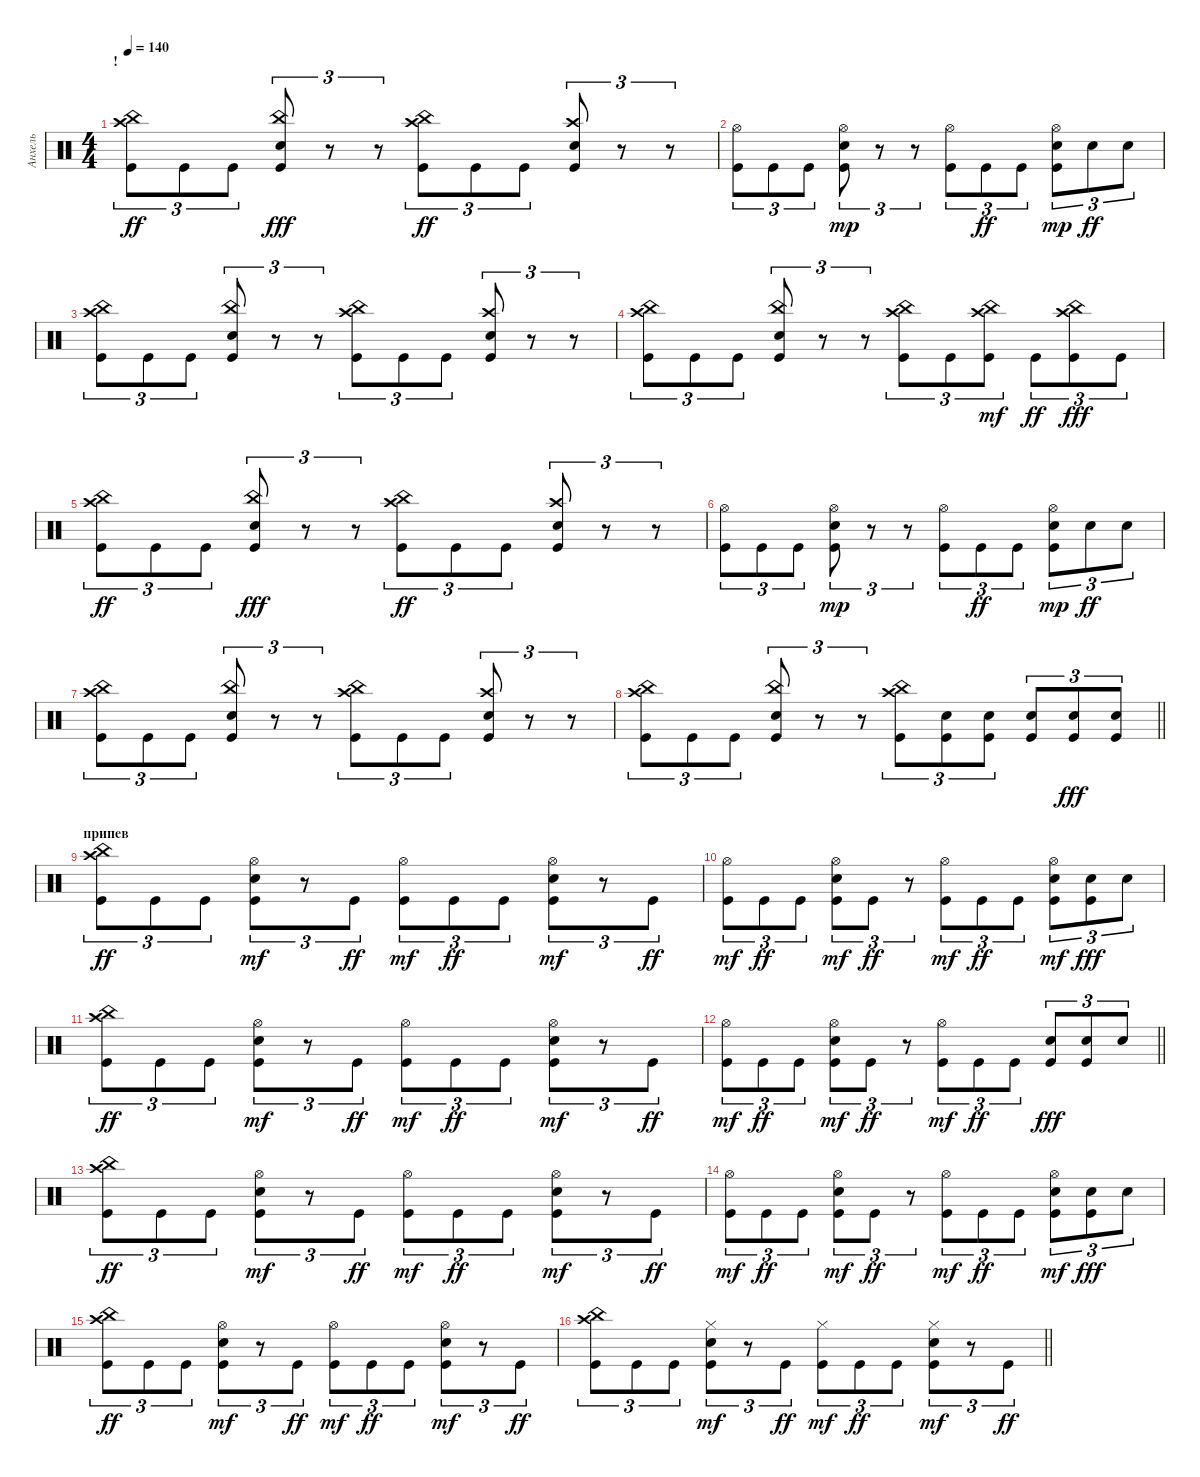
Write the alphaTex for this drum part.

\track ("Анхель" "Анхель") {instrument percussion}
\staff {score}
\articulation defaults
\ts (4 4)
\section ("" "!")
\tempo 140
\clef neutral
\ks c
("Kick (hit)" "China (hit)" "Crash high (hit)").8{tu (3 2) dy ff} "Kick (hit)".8{tu (3 2)} "Kick (hit)".8{tu (3 2)} ("Kick (hit)" "Snare (hit) 2" "China (hit)").8{tu (3 2) dy fff} r.8{tu (3 2)} r.8{tu (3 2)} ("Kick (hit)" "China (hit)" "Crash high (hit)").8{tu (3 2) dy ff} "Kick (hit)".8{tu (3 2)} "Kick (hit)".8{tu (3 2)} ("Kick (hit)" "Snare (hit) 2" "Crash high (hit)").8{tu (3 2)} r.8{tu (3 2)} r.8{tu (3 2)} |
("Kick (hit)" "Hi-Hat (open)").8{tu (3 2)} "Kick (hit)".8{tu (3 2)} "Kick (hit)".8{tu (3 2)} ("Kick (hit)" "Snare (hit) 2" "Hi-Hat (open)").8{tu (3 2) dy mp} r.8{tu (3 2)} r.8{tu (3 2)} ("Kick (hit)" "Hi-Hat (open)").8{tu (3 2)} "Kick (hit)".8{tu (3 2) dy ff} "Kick (hit)".8{tu (3 2)} ("Kick (hit)" "Snare (hit) 2" "Hi-Hat (open)").8{tu (3 2) dy mp} "Snare (hit) 2".8{tu (3 2) dy ff} "Snare (hit) 2".8{tu (3 2)} |
("Kick (hit)" "China (hit)" "Crash high (hit)").8{tu (3 2)} "Kick (hit)".8{tu (3 2)} "Kick (hit)".8{tu (3 2)} ("Kick (hit)" "Snare (hit) 2" "China (hit)").8{tu (3 2)} r.8{tu (3 2)} r.8{tu (3 2)} ("Kick (hit)" "China (hit)" "Crash high (hit)").8{tu (3 2)} "Kick (hit)".8{tu (3 2)} "Kick (hit)".8{tu (3 2)} ("Kick (hit)" "Snare (hit) 2" "Crash high (hit)").8{tu (3 2)} r.8{tu (3 2)} r.8{tu (3 2)} |
("Kick (hit)" "China (hit)" "Crash high (hit)").8{tu (3 2)} "Kick (hit)".8{tu (3 2)} "Kick (hit)".8{tu (3 2)} ("Kick (hit)" "Snare (hit) 2" "China (hit)").8{tu (3 2)} r.8{tu (3 2)} r.8{tu (3 2)} ("Kick (hit)" "China (hit)" "Crash high (hit)").8{tu (3 2)} "Kick (hit)".8{tu (3 2)} ("Kick (hit)" "Crash high (hit)" "China (hit)").8{tu (3 2) dy mf} "Kick (hit)".8{tu (3 2) dy ff} ("Kick (hit)" "China (hit)" "Crash high (hit)").8{tu (3 2) dy fff} "Kick (hit)".8{tu (3 2)} |
("Kick (hit)" "China (hit)" "Crash high (hit)").8{tu (3 2) dy ff} "Kick (hit)".8{tu (3 2)} "Kick (hit)".8{tu (3 2)} ("Kick (hit)" "Snare (hit) 2" "China (hit)").8{tu (3 2) dy fff} r.8{tu (3 2)} r.8{tu (3 2)} ("Kick (hit)" "China (hit)" "Crash high (hit)").8{tu (3 2) dy ff} "Kick (hit)".8{tu (3 2)} "Kick (hit)".8{tu (3 2)} ("Kick (hit)" "Snare (hit) 2" "Crash high (hit)").8{tu (3 2)} r.8{tu (3 2)} r.8{tu (3 2)} |
("Kick (hit)" "Hi-Hat (open)").8{tu (3 2)} "Kick (hit)".8{tu (3 2)} "Kick (hit)".8{tu (3 2)} ("Kick (hit)" "Snare (hit) 2" "Hi-Hat (open)").8{tu (3 2) dy mp} r.8{tu (3 2)} r.8{tu (3 2)} ("Kick (hit)" "Hi-Hat (open)").8{tu (3 2)} "Kick (hit)".8{tu (3 2) dy ff} "Kick (hit)".8{tu (3 2)} ("Kick (hit)" "Snare (hit) 2" "Hi-Hat (open)").8{tu (3 2) dy mp} "Snare (hit) 2".8{tu (3 2) dy ff} "Snare (hit) 2".8{tu (3 2)} |
("Kick (hit)" "China (hit)" "Crash high (hit)").8{tu (3 2)} "Kick (hit)".8{tu (3 2)} "Kick (hit)".8{tu (3 2)} ("Kick (hit)" "Snare (hit) 2" "China (hit)").8{tu (3 2)} r.8{tu (3 2)} r.8{tu (3 2)} ("Kick (hit)" "China (hit)" "Crash high (hit)").8{tu (3 2)} "Kick (hit)".8{tu (3 2)} "Kick (hit)".8{tu (3 2)} ("Kick (hit)" "Snare (hit) 2" "Crash high (hit)").8{tu (3 2)} r.8{tu (3 2)} r.8{tu (3 2)} |
\barLineRight lightlight
("Kick (hit)" "China (hit)" "Crash high (hit)").8{tu (3 2)} "Kick (hit)".8{tu (3 2)} "Kick (hit)".8{tu (3 2)} ("Kick (hit)" "Snare (hit) 2" "China (hit)").8{tu (3 2)} r.8{tu (3 2)} r.8{tu (3 2)} ("Kick (hit)" "China (hit)" "Crash high (hit)").8{tu (3 2)} ("Kick (hit)" "Snare (hit) 2").8{tu (3 2)} ("Kick (hit)" "Snare (hit) 2").8{tu (3 2)} ("Kick (hit)" "Snare (hit) 2").8{tu (3 2)} ("Kick (hit)" "Snare (hit) 2").8{tu (3 2) dy fff} ("Kick (hit)" "Snare (hit) 2").8{tu (3 2)} |
\section ("" "припев")
("Kick (hit)" "China (hit)" "Crash high (hit)").8{tu (3 2) dy ff} "Kick (hit)".8{tu (3 2)} "Kick (hit)".8{tu (3 2)} ("Kick (hit)" "Snare (hit) 2" "Hi-Hat (open)").8{tu (3 2) dy mf} r.8{tu (3 2)} "Kick (hit)".8{tu (3 2) dy ff} ("Kick (hit)" "Hi-Hat (open)").8{tu (3 2) dy mf} "Kick (hit)".8{tu (3 2) dy ff} "Kick (hit)".8{tu (3 2)} ("Kick (hit)" "Snare (hit) 2" "Hi-Hat (open)").8{tu (3 2) dy mf} r.8{tu (3 2)} "Kick (hit)".8{tu (3 2) dy ff} |
("Kick (hit)" "Hi-Hat (open)").8{tu (3 2) dy mf} "Kick (hit)".8{tu (3 2) dy ff} "Kick (hit)".8{tu (3 2)} ("Kick (hit)" "Snare (hit) 2" "Hi-Hat (open)").8{tu (3 2) dy mf} "Kick (hit)".8{tu (3 2) dy ff} r.8{tu (3 2)} ("Kick (hit)" "Hi-Hat (open)").8{tu (3 2) dy mf} "Kick (hit)".8{tu (3 2) dy ff} "Kick (hit)".8{tu (3 2)} ("Kick (hit)" "Snare (hit) 2" "Hi-Hat (open)").8{tu (3 2) dy mf} ("Kick (hit)" "Snare (hit) 2").8{tu (3 2) dy fff} "Snare (hit) 2".8{tu (3 2)} |
("Kick (hit)" "China (hit)" "Crash high (hit)").8{tu (3 2) dy ff} "Kick (hit)".8{tu (3 2)} "Kick (hit)".8{tu (3 2)} ("Kick (hit)" "Snare (hit) 2" "Hi-Hat (open)").8{tu (3 2) dy mf} r.8{tu (3 2)} "Kick (hit)".8{tu (3 2) dy ff} ("Kick (hit)" "Hi-Hat (open)").8{tu (3 2) dy mf} "Kick (hit)".8{tu (3 2) dy ff} "Kick (hit)".8{tu (3 2)} ("Kick (hit)" "Snare (hit) 2" "Hi-Hat (open)").8{tu (3 2) dy mf} r.8{tu (3 2)} "Kick (hit)".8{tu (3 2) dy ff} |
\barLineRight lightlight
("Kick (hit)" "Hi-Hat (open)").8{tu (3 2) dy mf} "Kick (hit)".8{tu (3 2) dy ff} "Kick (hit)".8{tu (3 2)} ("Kick (hit)" "Snare (hit) 2" "Hi-Hat (open)").8{tu (3 2) dy mf} "Kick (hit)".8{tu (3 2) dy ff} r.8{tu (3 2)} ("Kick (hit)" "Hi-Hat (open)").8{tu (3 2) dy mf} "Kick (hit)".8{tu (3 2) dy ff} "Kick (hit)".8{tu (3 2)} ("Kick (hit)" "Snare (hit) 2").8{tu (3 2) dy fff} ("Kick (hit)" "Snare (hit) 2").8{tu (3 2)} "Snare (hit) 2".8{tu (3 2)} |
("Kick (hit)" "China (hit)" "Crash high (hit)").8{tu (3 2) dy ff} "Kick (hit)".8{tu (3 2)} "Kick (hit)".8{tu (3 2)} ("Kick (hit)" "Snare (hit) 2" "Hi-Hat (open)").8{tu (3 2) dy mf} r.8{tu (3 2)} "Kick (hit)".8{tu (3 2) dy ff} ("Kick (hit)" "Hi-Hat (open)").8{tu (3 2) dy mf} "Kick (hit)".8{tu (3 2) dy ff} "Kick (hit)".8{tu (3 2)} ("Kick (hit)" "Snare (hit) 2" "Hi-Hat (open)").8{tu (3 2) dy mf} r.8{tu (3 2)} "Kick (hit)".8{tu (3 2) dy ff} |
("Kick (hit)" "Hi-Hat (open)").8{tu (3 2) dy mf} "Kick (hit)".8{tu (3 2) dy ff} "Kick (hit)".8{tu (3 2)} ("Kick (hit)" "Snare (hit) 2" "Hi-Hat (open)").8{tu (3 2) dy mf} "Kick (hit)".8{tu (3 2) dy ff} r.8{tu (3 2)} ("Kick (hit)" "Hi-Hat (open)").8{tu (3 2) dy mf} "Kick (hit)".8{tu (3 2) dy ff} "Kick (hit)".8{tu (3 2)} ("Kick (hit)" "Snare (hit) 2" "Hi-Hat (open)").8{tu (3 2) dy mf} ("Kick (hit)" "Snare (hit) 2").8{tu (3 2) dy fff} "Snare (hit) 2".8{tu (3 2)} |
("Kick (hit)" "China (hit)" "Crash high (hit)").8{tu (3 2) dy ff} "Kick (hit)".8{tu (3 2)} "Kick (hit)".8{tu (3 2)} ("Kick (hit)" "Snare (hit) 2" "Hi-Hat (open)").8{tu (3 2) dy mf} r.8{tu (3 2)} "Kick (hit)".8{tu (3 2) dy ff} ("Kick (hit)" "Hi-Hat (open)").8{tu (3 2) dy mf} "Kick (hit)".8{tu (3 2) dy ff} "Kick (hit)".8{tu (3 2)} ("Kick (hit)" "Snare (hit) 2" "Hi-Hat (open)").8{tu (3 2) dy mf} r.8{tu (3 2)} "Kick (hit)".8{tu (3 2) dy ff} |
\barLineRight lightlight
("Kick (hit)" "China (hit)" "Crash high (hit)").8{tu (3 2)} "Kick (hit)".8{tu (3 2)} "Kick (hit)".8{tu (3 2)} ("Hi-Hat (closed)" "Snare (hit) 2" "Kick (hit)").8{tu (3 2) dy mf} r.8{tu (3 2)} "Kick (hit)".8{tu (3 2) dy ff} ("Kick (hit)" "Hi-Hat (closed)").8{tu (3 2) dy mf} "Kick (hit)".8{tu (3 2) dy ff} "Kick (hit)".8{tu (3 2)} ("Kick (hit)" "Snare (hit) 2" "Hi-Hat (closed)").8{tu (3 2) dy mf} r.8{tu (3 2)} "Kick (hit)".8{tu (3 2) dy ff}
